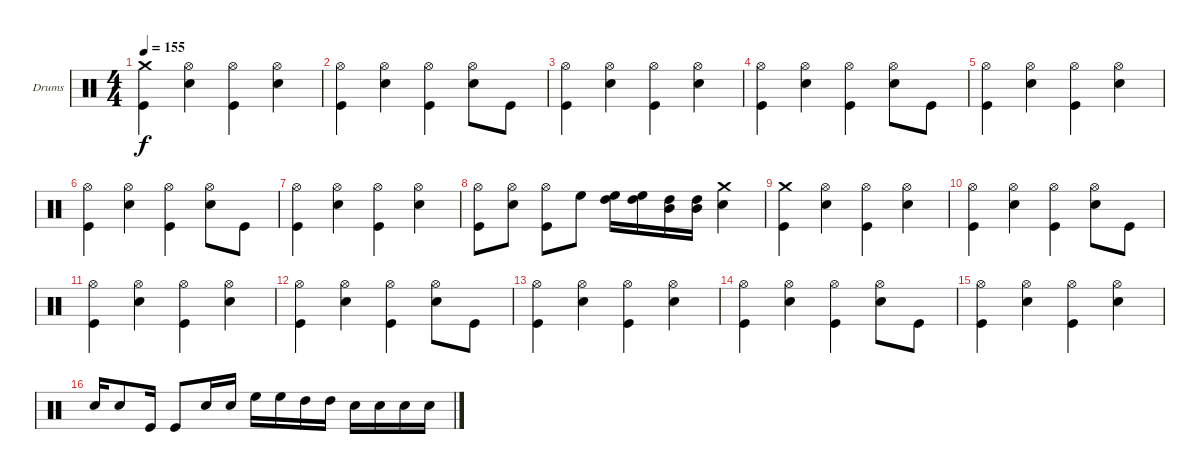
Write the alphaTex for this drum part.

\defaultSystemsLayout 4
\bracketExtendMode groupsimilarinstruments
\firstSystemTrackNameOrientation horizontal
\otherSystemsTrackNameOrientation horizontal
\track ("Drumkit" "Drums") {instrument percussion}
\staff {score}
\articulation defaults
\ts (4 4)
\tempo 155
\clef neutral
\scale
0.474178
\ks c
("Crash medium (hit)" "Kick (hit)").4{dy f} ("Hi-Hat (open)" "Snare (hit) 2").4 ("Hi-Hat (open)" "Kick (hit)").4 ("Hi-Hat (open)" "Snare (hit) 2").4 |
\scale
0.262911 ("Hi-Hat (open)" "Kick (hit)").4 ("Hi-Hat (open)" "Snare (hit) 2").4 ("Hi-Hat (open)" "Kick (hit)").4 ("Hi-Hat (open)" "Snare (hit) 2").8 "Kick (hit)".8 |
\scale
0.262911 ("Hi-Hat (open)" "Kick (hit)").4 ("Hi-Hat (open)" "Snare (hit) 2").4 ("Hi-Hat (open)" "Kick (hit)").4 ("Hi-Hat (open)" "Snare (hit) 2").4 |
\scale
0.333333 ("Hi-Hat (open)" "Kick (hit)").4 ("Hi-Hat (open)" "Snare (hit) 2").4 ("Hi-Hat (open)" "Kick (hit)").4 ("Hi-Hat (open)" "Snare (hit) 2").8 "Kick (hit)".8 |
\scale
0.333333 ("Hi-Hat (open)" "Kick (hit)").4 ("Hi-Hat (open)" "Snare (hit) 2").4 ("Hi-Hat (open)" "Kick (hit)").4 ("Hi-Hat (open)" "Snare (hit) 2").4 |
\scale
0.333333 ("Hi-Hat (open)" "Kick (hit)").4 ("Hi-Hat (open)" "Snare (hit) 2").4 ("Hi-Hat (open)" "Kick (hit)").4 ("Hi-Hat (open)" "Snare (hit) 2").8 "Kick (hit)".8 |
\scale
0.333333 ("Hi-Hat (open)" "Kick (hit)").4 ("Hi-Hat (open)" "Snare (hit) 2").4 ("Hi-Hat (open)" "Kick (hit)").4 ("Hi-Hat (open)" "Snare (hit) 2").4 |
\scale
0.333333 ("Hi-Hat (open)" "Kick (hit)").8 ("Hi-Hat (open)" "Snare (hit) 2").8 ("Hi-Hat (open)" "Kick (hit)").8 "High Floor Tom (hit)".8 ("High Floor Tom (hit)" "High Tom (hit)").16 ("High Floor Tom (hit)" "High Tom (hit)").16 ("High Tom (hit)" "Mid Tom (hit)").16 ("High Tom (hit)" "Mid Tom (hit)").16 ("Crash medium (hit)" "Snare (hit) 2").4 |
\scale
0.333333 ("Crash medium (hit)" "Kick (hit)").4 ("Hi-Hat (open)" "Snare (hit) 2").4 ("Hi-Hat (open)" "Kick (hit)").4 ("Hi-Hat (open)" "Snare (hit) 2").4 |
\scale
0.333333 ("Hi-Hat (open)" "Kick (hit)").4 ("Hi-Hat (open)" "Snare (hit) 2").4 ("Hi-Hat (open)" "Kick (hit)").4 ("Hi-Hat (open)" "Snare (hit) 2").8 "Kick (hit)".8 |
\scale
0.333333 ("Hi-Hat (open)" "Kick (hit)").4 ("Hi-Hat (open)" "Snare (hit) 2").4 ("Hi-Hat (open)" "Kick (hit)").4 ("Hi-Hat (open)" "Snare (hit) 2").4 |
\scale
0.333333 ("Hi-Hat (open)" "Kick (hit)").4 ("Hi-Hat (open)" "Snare (hit) 2").4 ("Hi-Hat (open)" "Kick (hit)").4 ("Hi-Hat (open)" "Snare (hit) 2").8 "Kick (hit)".8 |
\scale
0.333333 ("Hi-Hat (open)" "Kick (hit)").4 ("Hi-Hat (open)" "Snare (hit) 2").4 ("Hi-Hat (open)" "Kick (hit)").4 ("Hi-Hat (open)" "Snare (hit) 2").4 |
\scale
0.333333 ("Hi-Hat (open)" "Kick (hit)").4 ("Hi-Hat (open)" "Snare (hit) 2").4 ("Hi-Hat (open)" "Kick (hit)").4 ("Hi-Hat (open)" "Snare (hit) 2").8 "Kick (hit)".8 |
\scale
0.333333 ("Hi-Hat (open)" "Kick (hit)").4 ("Hi-Hat (open)" "Snare (hit) 2").4 ("Hi-Hat (open)" "Kick (hit)").4 ("Hi-Hat (open)" "Snare (hit) 2").4 |
\scale
0.333333 "Snare (hit) 2".16 "Snare (hit) 2".8 "Kick (hit)".16 "Kick (hit)".8 "Snare (hit) 2".16 "Snare (hit) 2".16 "High Floor Tom (hit)".16 "High Floor Tom (hit)".16 "High Tom (hit)".16 "High Tom (hit)".16 "Snare (hit) 2".16 "Snare (hit) 2".16 "Snare (hit) 2".16 "Snare (hit) 2".16
